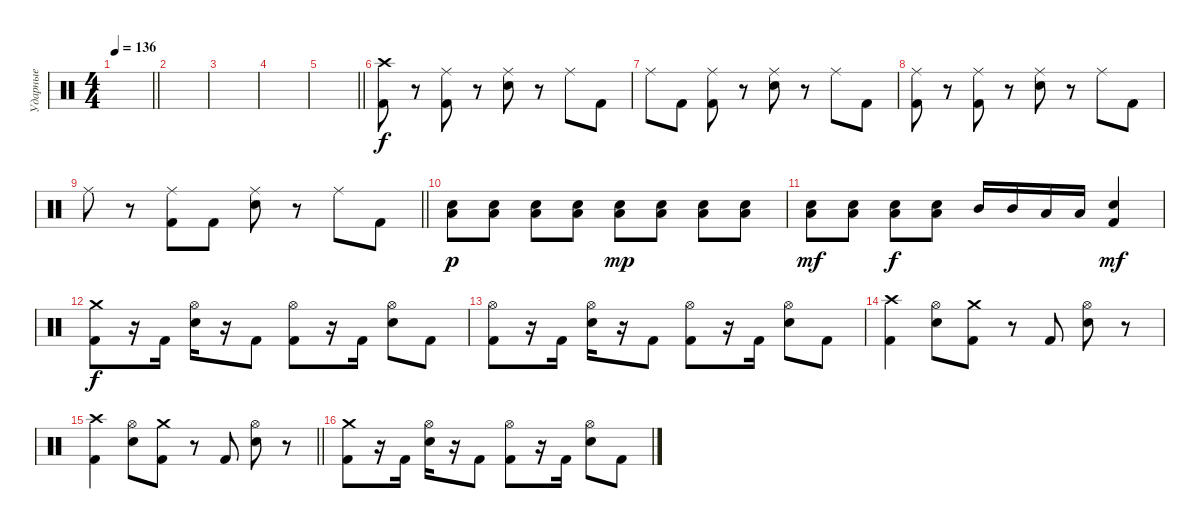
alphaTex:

\track ("Ударные" "Ударные") {instrument percussion}
\staff {score}
\articulation defaults
\ts (4 4)
\tempo 136
\clef neutral
\barLineRight lightlight
\ks c
|
|
|
|
\barLineRight lightlight
|
("Crash high (hit)" "Kick (hit) 2").8 r.8 ("Ride (middle)" "Kick (hit) 2").8 r.8 ("Ride (middle)" "Snare (hit) 2").8 r.8 "Ride (middle)".8 "Kick (hit) 2".8 |
"Ride (middle)".8 "Kick (hit) 2".8 ("Ride (middle)" "Kick (hit) 2").8 r.8 ("Ride (middle)" "Snare (hit) 2").8 r.8 "Ride (middle)".8 "Kick (hit) 2".8 |
("Ride (middle)" "Kick (hit) 2").8 r.8 ("Ride (middle)" "Kick (hit) 2").8 r.8 ("Ride (middle)" "Snare (hit) 2").8 r.8 "Ride (middle)".8 "Kick (hit) 2".8 |
\barLineRight lightlight "Ride (middle)".8
r.8 ("Ride (middle)" "Kick (hit) 2").8 "Kick (hit) 2".8 ("Ride (middle)" "Snare (hit) 2").8 r.8 "Ride (middle)".8 "Kick (hit) 2".8 |
("Low Tom (hit)" "Snare (hit) 2").8{dy p} ("Low Tom (hit)" "Snare (hit) 2").8 ("Low Tom (hit)" "Snare (hit) 2").8 ("Low Tom (hit)" "Snare (hit) 2").8 ("Low Tom (hit)" "Snare (hit) 2").8{dy mp} ("Low Tom (hit)" "Snare (hit) 2").8 ("Low Tom (hit)" "Snare (hit) 2").8 ("Low Tom (hit)" "Snare (hit) 2").8 |
("Low Tom (hit)" "Snare (hit) 2").8{dy mf} ("Low Tom (hit)" "Snare (hit) 2").8 ("Low Tom (hit)" "Snare (hit) 2").8{dy f} ("Low Tom (hit)" "Snare (hit) 2").8 "Mid Tom (hit)".16 "Mid Tom (hit)".16 "Low Tom (hit)".16 "Low Tom (hit)".16 ("Snare (hit) 2" "Kick (hit) 2").4{dy mf} |
("Crash medium (hit)" "Kick (hit) 2").8{dy f} r.16 "Kick (hit) 2".16 ("Hi-Hat (open)" "Snare (hit) 2").16 r.16 "Kick (hit) 2".8 ("Hi-Hat (open)" "Kick (hit) 2").8 r.16 "Kick (hit) 2".16 ("Hi-Hat (open)" "Snare (hit) 2").8 "Kick (hit) 2".8 |
("Hi-Hat (open)" "Kick (hit) 2").8 r.16 "Kick (hit) 2".16 ("Hi-Hat (open)" "Snare (hit) 2").16 r.16 "Kick (hit) 2".8 ("Hi-Hat (open)" "Kick (hit) 2").8 r.16 "Kick (hit) 2".16 ("Hi-Hat (open)" "Snare (hit) 2").8 "Kick (hit) 2".8 |
("Crash high (hit)" "Kick (hit) 2").4 ("Hi-Hat (open)" "Snare (hit) 2").8 ("Crash medium (hit)" "Kick (hit) 2").8 r.8 "Kick (hit) 2".8 ("Hi-Hat (open)" "Snare (hit) 2").8 r.8 |
\barLineRight lightlight
("Crash high (hit)" "Kick (hit) 2").4 ("Hi-Hat (open)" "Snare (hit) 2").8 ("Crash medium (hit)" "Kick (hit) 2").8 r.8 "Kick (hit) 2".8 ("Hi-Hat (open)" "Snare (hit) 2").8 r.8 |
("Crash medium (hit)" "Kick (hit) 2").8 r.16 "Kick (hit) 2".16 ("Hi-Hat (open)" "Snare (hit) 2").16 r.16 "Kick (hit) 2".8 ("Hi-Hat (open)" "Kick (hit) 2").8 r.16 "Kick (hit) 2".16 ("Hi-Hat (open)" "Snare (hit) 2").8 "Kick (hit) 2".8
